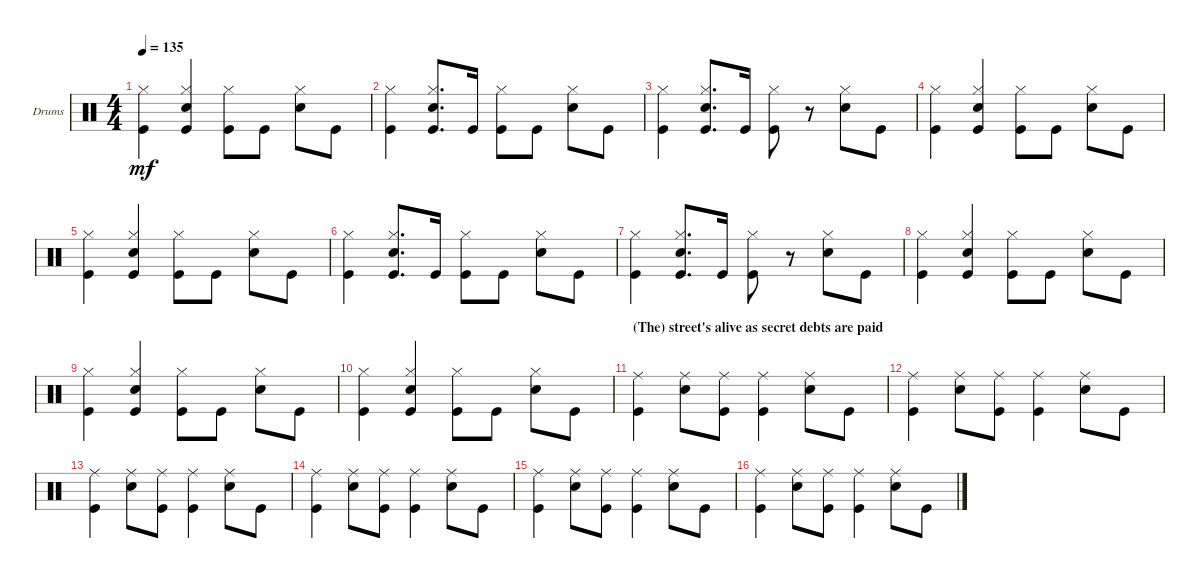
\defaultSystemsLayout 4
\bracketExtendMode groupsimilarinstruments
\firstSystemTrackNameOrientation horizontal
\otherSystemsTrackNameOrientation horizontal
\track ("Drumkit" "Drums") {instrument percussion}
\staff {score}
\articulation defaults
\ts (4 4)
\tempo 135
\clef neutral
\scale
0.333333
\ks c
("Kick (hit)" "Hi-Hat (closed)").4{dy mf} ("Kick (hit)" "Snare (hit) 2" "Hi-Hat (closed)").4 ("Kick (hit)" "Hi-Hat (closed)").8 "Kick (hit)".8 ("Snare (hit) 2" "Hi-Hat (closed)").8 "Kick (hit)".8 |
\scale
0.333333 ("Kick (hit)" "Hi-Hat (closed)").4 ("Kick (hit)" "Snare (hit) 2" "Hi-Hat (closed)").8{d} "Kick (hit)".16 ("Kick (hit)" "Hi-Hat (closed)").8 "Kick (hit)".8 ("Snare (hit) 2" "Hi-Hat (closed)").8 "Kick (hit)".8 |
\scale
0.333333 ("Kick (hit)" "Hi-Hat (closed)").4 ("Kick (hit)" "Snare (hit) 2" "Hi-Hat (closed)").8{d} "Kick (hit)".16 ("Kick (hit)" "Hi-Hat (closed)").8 r.8 ("Snare (hit) 2" "Hi-Hat (closed)").8 "Kick (hit)".8 |
\scale
0.333333 ("Kick (hit)" "Hi-Hat (closed)").4 ("Kick (hit)" "Snare (hit) 2" "Hi-Hat (closed)").4 ("Kick (hit)" "Hi-Hat (closed)").8 "Kick (hit)".8 ("Snare (hit) 2" "Hi-Hat (closed)").8 "Kick (hit)".8 |
\scale
0.333333 ("Kick (hit)" "Hi-Hat (closed)").4 ("Kick (hit)" "Snare (hit) 2" "Hi-Hat (closed)").4 ("Kick (hit)" "Hi-Hat (closed)").8 "Kick (hit)".8 ("Snare (hit) 2" "Hi-Hat (closed)").8 "Kick (hit)".8 |
\scale
0.333333 ("Kick (hit)" "Hi-Hat (closed)").4 ("Kick (hit)" "Snare (hit) 2" "Hi-Hat (closed)").8{d} "Kick (hit)".16 ("Kick (hit)" "Hi-Hat (closed)").8 "Kick (hit)".8 ("Snare (hit) 2" "Hi-Hat (closed)").8 "Kick (hit)".8 |
\scale
0.333333 ("Kick (hit)" "Hi-Hat (closed)").4 ("Kick (hit)" "Snare (hit) 2" "Hi-Hat (closed)").8{d} "Kick (hit)".16 ("Kick (hit)" "Hi-Hat (closed)").8 r.8 ("Snare (hit) 2" "Hi-Hat (closed)").8 "Kick (hit)".8 |
\scale
0.333333 ("Kick (hit)" "Hi-Hat (closed)").4 ("Kick (hit)" "Snare (hit) 2" "Hi-Hat (closed)").4 ("Kick (hit)" "Hi-Hat (closed)").8 "Kick (hit)".8 ("Snare (hit) 2" "Hi-Hat (closed)").8 "Kick (hit)".8 |
\scale
0.333333 ("Kick (hit)" "Hi-Hat (closed)").4 ("Kick (hit)" "Snare (hit) 2" "Hi-Hat (closed)").4 ("Kick (hit)" "Hi-Hat (closed)").8 "Kick (hit)".8 ("Snare (hit) 2" "Hi-Hat (closed)").8 "Kick (hit)".8 |
\scale
0.333333 ("Kick (hit)" "Hi-Hat (closed)").4 ("Kick (hit)" "Snare (hit) 2" "Hi-Hat (closed)").4 ("Kick (hit)" "Hi-Hat (closed)").8 "Kick (hit)".8 ("Snare (hit) 2" "Hi-Hat (closed)").8 "Kick (hit)".8 |
\section ("" "(The) street's alive as secret debts are paid")
\scale
0.333333 ("Kick (hit)" "Ride (middle)").4 ("Snare (hit) 2" "Ride (middle)").8 ("Kick (hit)" "Ride (middle)").8 ("Kick (hit)" "Ride (middle)").4 ("Snare (hit) 2" "Ride (middle)").8 "Kick (hit)".8 |
\scale
0.333333 ("Kick (hit)" "Ride (middle)").4 ("Snare (hit) 2" "Ride (middle)").8 ("Kick (hit)" "Ride (middle)").8 ("Kick (hit)" "Ride (middle)").4 ("Snare (hit) 2" "Ride (middle)").8 "Kick (hit)".8 |
\scale
0.333333 ("Kick (hit)" "Ride (middle)").4 ("Snare (hit) 2" "Ride (middle)").8 ("Kick (hit)" "Ride (middle)").8 ("Kick (hit)" "Ride (middle)").4 ("Snare (hit) 2" "Ride (middle)").8 "Kick (hit)".8 |
\scale
0.333333 ("Kick (hit)" "Ride (middle)").4 ("Snare (hit) 2" "Ride (middle)").8 ("Kick (hit)" "Ride (middle)").8 ("Kick (hit)" "Ride (middle)").4 ("Snare (hit) 2" "Ride (middle)").8 "Kick (hit)".8 |
\scale
0.333333 ("Kick (hit)" "Ride (middle)").4 ("Snare (hit) 2" "Ride (middle)").8 ("Kick (hit)" "Ride (middle)").8 ("Kick (hit)" "Ride (middle)").4 ("Snare (hit) 2" "Ride (middle)").8 "Kick (hit)".8 |
\scale
0.333333 ("Kick (hit)" "Ride (middle)").4 ("Snare (hit) 2" "Ride (middle)").8 ("Kick (hit)" "Ride (middle)").8 ("Kick (hit)" "Ride (middle)").4 ("Snare (hit) 2" "Ride (middle)").8 "Kick (hit)".8
